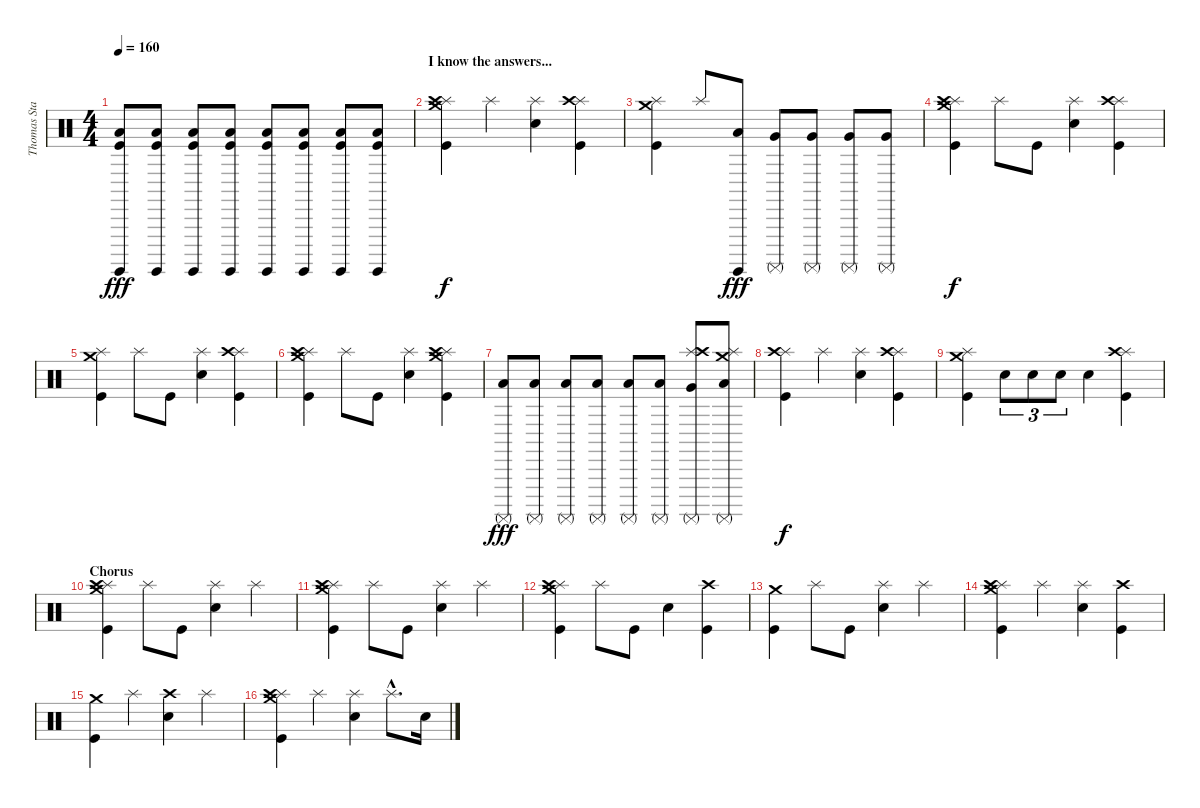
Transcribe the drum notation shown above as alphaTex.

\track ("Thomas Stauch" "Thomas Sta") {instrument percussion}
\staff {score}
\articulation defaults
\ts (4 4)
\tempo 160
\clef neutral
\ks c
("Surdo (hit)" "Low Floor Tom (hit)" "Kick (hit)").8{dy fff} ("Surdo (hit)" "Low Floor Tom (hit)" "Kick (hit)").8 ("Surdo (hit)" "Low Floor Tom (hit)" "Kick (hit)").8 ("Surdo (hit)" "Low Floor Tom (hit)" "Kick (hit)").8 ("Surdo (hit)" "Low Floor Tom (hit)" "Kick (hit)").8 ("Surdo (hit)" "Low Floor Tom (hit)" "Kick (hit)").8 ("Surdo (hit)" "Low Floor Tom (hit)" "Kick (hit)").8 ("Surdo (hit)" "Low Floor Tom (hit)" "Kick (hit)").8 |
\section ("" "I know the answers...")
("Crash medium (hit)" "Splash (hit)" "Crash high (hit)" "Kick (hit)").4{dy f} "Splash (hit)".4 ("Splash (hit)" "Electric Snare (hit)").4 ("Splash (hit)" "Crash high (hit)" "Kick (hit)").4 |
("Crash medium (hit)" "Splash (hit)" "Kick (hit)").4 "Splash (hit)".8 ("Surdo (hit)" "Low Floor Tom (hit)").8{dy fff} ("Surdo (mute)" "Very Low Tom (hit)").8 ("Surdo (mute)" "Very Low Tom (hit)").8 ("Surdo (mute)" "Very Low Tom (hit)").8 ("Surdo (mute)" "Very Low Tom (hit)").8 |
("Crash medium (hit)" "Splash (hit)" "Crash high (hit)" "Kick (hit)").4{dy f} "Splash (hit)".8 "Kick (hit)".8 ("Splash (hit)" "Electric Snare (hit)").4 ("Splash (hit)" "Crash high (hit)" "Kick (hit)").4 |
("Crash medium (hit)" "Splash (hit)" "Kick (hit)").4 "Splash (hit)".8 "Kick (hit)".8 ("Splash (hit)" "Electric Snare (hit)").4 ("Splash (hit)" "Crash high (hit)" "Kick (hit)").4 |
("Crash medium (hit)" "Splash (hit)" "Crash high (hit)" "Kick (hit)").4 "Splash (hit)".8 "Kick (hit)".8 ("Splash (hit)" "Electric Snare (hit)").4 ("Crash medium (hit)" "Splash (hit)" "Crash high (hit)" "Kick (hit)").4 |
("Surdo (mute)" "Low Floor Tom (hit)").8{dy fff} ("Surdo (mute)" "Low Floor Tom (hit)").8 ("Surdo (mute)" "Low Floor Tom (hit)").8 ("Surdo (mute)" "Low Floor Tom (hit)").8 ("Surdo (mute)" "Low Floor Tom (hit)").8 ("Surdo (mute)" "Low Floor Tom (hit)").8 ("Splash (hit)" "Crash high (hit)" "Surdo (mute)" "Very Low Tom (hit)").8 ("Crash medium (hit)" "Splash (hit)" "Surdo (mute)" "Low Floor Tom (hit)").8 |
("Splash (hit)" "Crash high (hit)" "Kick (hit)").4{dy f} "Splash (hit)".4 ("Splash (hit)" "Electric Snare (hit)").4 ("Splash (hit)" "Crash high (hit)" "Kick (hit)").4 |
("Crash medium (hit)" "Splash (hit)" "Kick (hit)").4 "Electric Snare (hit)".8{tu (3 2)} "Electric Snare (hit)".8{tu (3 2)} "Electric Snare (hit)".8{tu (3 2)} "Electric Snare (hit)".4 ("Splash (hit)" "Crash high (hit)" "Kick (hit)").4 |
\section ("" "Chorus")
("Crash medium (hit)" "Splash (hit)" "Crash high (hit)" "Kick (hit)").4 "Splash (hit)".8 "Kick (hit)".8 ("Splash (hit)" "Electric Snare (hit)").4 "Splash (hit)".4 |
("Crash medium (hit)" "Splash (hit)" "Crash high (hit)" "Kick (hit)").4 "Splash (hit)".8 "Kick (hit)".8 ("Splash (hit)" "Electric Snare (hit)").4 "Splash (hit)".4 |
("Crash medium (hit)" "Splash (hit)" "Crash high (hit)" "Kick (hit)").4 "Splash (hit)".8 "Kick (hit)".8 "Electric Snare (hit)".4 ("Crash high (hit)" "Kick (hit)").4 |
("Crash medium (hit)" "Kick (hit)").4 "Splash (hit)".8 "Kick (hit)".8 ("Splash (hit)" "Electric Snare (hit)").4 "Splash (hit)".4 |
("Crash medium (hit)" "Splash (hit)" "Crash high (hit)" "Kick (hit)").4 "Splash (hit)".4 ("Splash (hit)" "Electric Snare (hit)").4 ("Crash high (hit)" "Kick (hit)").4 |
("Crash medium (hit)" "Kick (hit)").4 "Splash (hit)".4 ("Crash high (hit)" "Electric Snare (hit)").4 "Splash (hit)".4 |
("Crash medium (hit)" "Splash (hit)" "Crash high (hit)" "Kick (hit)").4 "Splash (hit)".4 ("Splash (hit)" "Electric Snare (hit)").4 "Splash (hit)"{hac}.8{d} "Electric Snare (hit)".16
